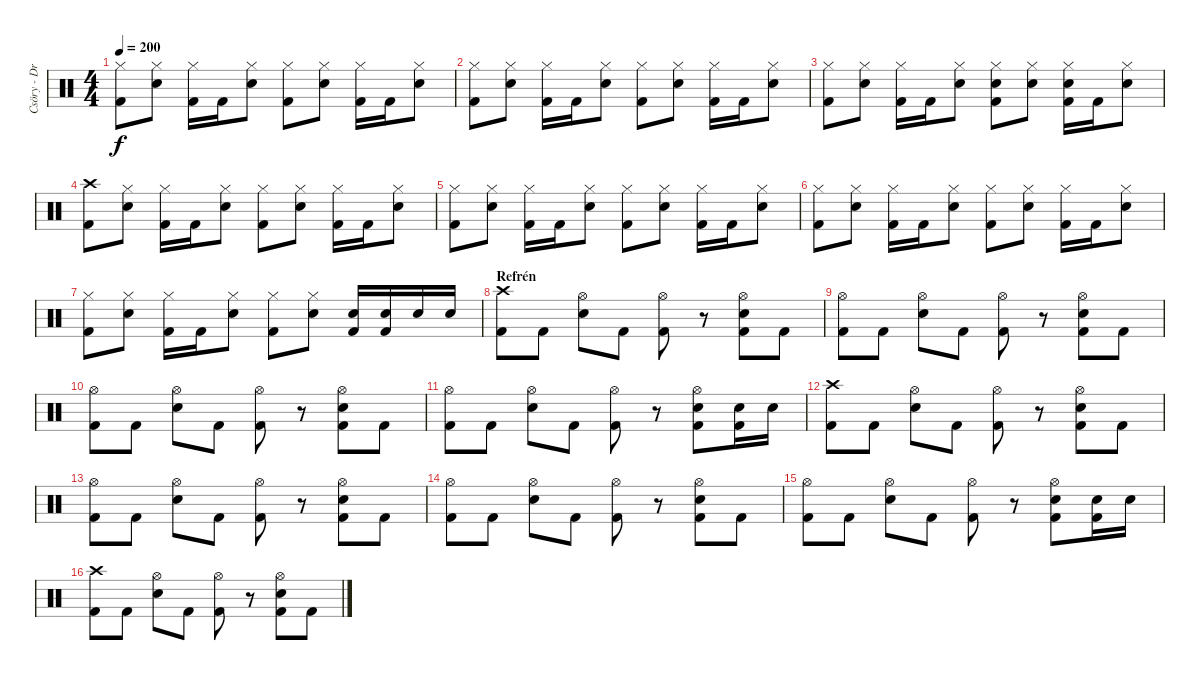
\track ("Csöry - DrumZ" "Csöry - Dr") {instrument percussion}
\staff {score}
\articulation defaults
\ts (4 4)
\tempo 200
\clef neutral
\ks c
("Hi-Hat (closed)" "Kick (hit) 2").8{dy f} ("Hi-Hat (closed)" "Snare (hit) 2").8 ("Hi-Hat (closed)" "Kick (hit) 2").16 "Kick (hit) 2".16 ("Hi-Hat (closed)" "Snare (hit) 2").8 ("Hi-Hat (closed)" "Kick (hit) 2").8 ("Hi-Hat (closed)" "Snare (hit) 2").8 ("Hi-Hat (closed)" "Kick (hit) 2").16 "Kick (hit) 2".16 ("Hi-Hat (closed)" "Snare (hit) 2").8 |
("Hi-Hat (closed)" "Kick (hit) 2").8 ("Hi-Hat (closed)" "Snare (hit) 2").8 ("Hi-Hat (closed)" "Kick (hit) 2").16 "Kick (hit) 2".16 ("Hi-Hat (closed)" "Snare (hit) 2").8 ("Hi-Hat (closed)" "Kick (hit) 2").8 ("Hi-Hat (closed)" "Snare (hit) 2").8 ("Hi-Hat (closed)" "Kick (hit) 2").16 "Kick (hit) 2".16 ("Hi-Hat (closed)" "Snare (hit) 2").8 |
("Hi-Hat (closed)" "Kick (hit) 2").8 ("Hi-Hat (closed)" "Snare (hit) 2").8 ("Hi-Hat (closed)" "Kick (hit) 2").16 "Kick (hit) 2".16 ("Hi-Hat (closed)" "Snare (hit) 2").8 ("Hi-Hat (closed)" "Snare (hit) 2" "Kick (hit) 2").8 ("Hi-Hat (closed)" "Snare (hit) 2").8 ("Hi-Hat (closed)" "Snare (hit) 2" "Kick (hit) 2").16 "Kick (hit) 2".16 ("Hi-Hat (closed)" "Snare (hit) 2").8 |
("Crash high (hit)" "Kick (hit) 2").8 ("Hi-Hat (closed)" "Snare (hit) 2").8 ("Hi-Hat (closed)" "Kick (hit) 2").16 "Kick (hit) 2".16 ("Hi-Hat (closed)" "Snare (hit) 2").8 ("Hi-Hat (closed)" "Kick (hit) 2").8 ("Hi-Hat (closed)" "Snare (hit) 2").8 ("Hi-Hat (closed)" "Kick (hit) 2").16 "Kick (hit) 2".16 ("Hi-Hat (closed)" "Snare (hit) 2").8 |
("Hi-Hat (closed)" "Kick (hit) 2").8 ("Hi-Hat (closed)" "Snare (hit) 2").8 ("Hi-Hat (closed)" "Kick (hit) 2").16 "Kick (hit) 2".16 ("Hi-Hat (closed)" "Snare (hit) 2").8 ("Hi-Hat (closed)" "Kick (hit) 2").8 ("Hi-Hat (closed)" "Snare (hit) 2").8 ("Hi-Hat (closed)" "Kick (hit) 2").16 "Kick (hit) 2".16 ("Hi-Hat (closed)" "Snare (hit) 2").8 |
("Hi-Hat (closed)" "Kick (hit) 2").8 ("Hi-Hat (closed)" "Snare (hit) 2").8 ("Hi-Hat (closed)" "Kick (hit) 2").16 "Kick (hit) 2".16 ("Hi-Hat (closed)" "Snare (hit) 2").8 ("Hi-Hat (closed)" "Kick (hit) 2").8 ("Hi-Hat (closed)" "Snare (hit) 2").8 ("Hi-Hat (closed)" "Kick (hit) 2").16 "Kick (hit) 2".16 ("Hi-Hat (closed)" "Snare (hit) 2").8 |
("Hi-Hat (closed)" "Kick (hit) 2").8 ("Hi-Hat (closed)" "Snare (hit) 2").8 ("Hi-Hat (closed)" "Kick (hit) 2").16 "Kick (hit) 2".16 ("Hi-Hat (closed)" "Snare (hit) 2").8 ("Hi-Hat (closed)" "Kick (hit) 2").8 ("Hi-Hat (closed)" "Snare (hit) 2").8 ("Snare (hit) 2" "Kick (hit) 2").16 ("Snare (hit) 2" "Kick (hit) 2").16 "Snare (hit) 2".16 "Snare (hit) 2".16 |
\section ("" "Refrén")
("Crash high (hit)" "Kick (hit) 2").8 "Kick (hit) 2".8 ("Hi-Hat (open)" "Snare (hit) 2").8 "Kick (hit) 2".8 ("Hi-Hat (open)" "Kick (hit) 2").8 r.8 ("Hi-Hat (open)" "Snare (hit) 2" "Kick (hit) 2").8 "Kick (hit) 2".8 |
("Hi-Hat (open)" "Kick (hit) 2").8 "Kick (hit) 2".8 ("Hi-Hat (open)" "Snare (hit) 2").8 "Kick (hit) 2".8 ("Hi-Hat (open)" "Kick (hit) 2").8 r.8 ("Hi-Hat (open)" "Snare (hit) 2" "Kick (hit) 2").8 "Kick (hit) 2".8 |
("Hi-Hat (open)" "Kick (hit) 2").8 "Kick (hit) 2".8 ("Hi-Hat (open)" "Snare (hit) 2").8 "Kick (hit) 2".8 ("Hi-Hat (open)" "Kick (hit) 2").8 r.8 ("Hi-Hat (open)" "Snare (hit) 2" "Kick (hit) 2").8 "Kick (hit) 2".8 |
("Hi-Hat (open)" "Kick (hit) 2").8 "Kick (hit) 2".8 ("Hi-Hat (open)" "Snare (hit) 2").8 "Kick (hit) 2".8 ("Hi-Hat (open)" "Kick (hit) 2").8 r.8 ("Hi-Hat (open)" "Snare (hit) 2" "Kick (hit) 2").8 ("Snare (hit) 2" "Kick (hit) 2").16 "Snare (hit) 2".16 |
("Crash high (hit)" "Kick (hit) 2").8 "Kick (hit) 2".8 ("Hi-Hat (open)" "Snare (hit) 2").8 "Kick (hit) 2".8 ("Hi-Hat (open)" "Kick (hit) 2").8 r.8 ("Hi-Hat (open)" "Snare (hit) 2" "Kick (hit) 2").8 "Kick (hit) 2".8 |
("Hi-Hat (open)" "Kick (hit) 2").8 "Kick (hit) 2".8 ("Hi-Hat (open)" "Snare (hit) 2").8 "Kick (hit) 2".8 ("Hi-Hat (open)" "Kick (hit) 2").8 r.8 ("Hi-Hat (open)" "Snare (hit) 2" "Kick (hit) 2").8 "Kick (hit) 2".8 |
("Hi-Hat (open)" "Kick (hit) 2").8 "Kick (hit) 2".8 ("Hi-Hat (open)" "Snare (hit) 2").8 "Kick (hit) 2".8 ("Hi-Hat (open)" "Kick (hit) 2").8 r.8 ("Hi-Hat (open)" "Snare (hit) 2" "Kick (hit) 2").8 "Kick (hit) 2".8 |
("Hi-Hat (open)" "Kick (hit) 2").8 "Kick (hit) 2".8 ("Hi-Hat (open)" "Snare (hit) 2").8 "Kick (hit) 2".8 ("Hi-Hat (open)" "Kick (hit) 2").8 r.8 ("Hi-Hat (open)" "Snare (hit) 2" "Kick (hit) 2").8 ("Snare (hit) 2" "Kick (hit) 2").16 "Snare (hit) 2".16 |
("Crash high (hit)" "Kick (hit) 2").8 "Kick (hit) 2".8 ("Hi-Hat (open)" "Snare (hit) 2").8 "Kick (hit) 2".8 ("Hi-Hat (open)" "Kick (hit) 2").8 r.8 ("Hi-Hat (open)" "Snare (hit) 2" "Kick (hit) 2").8 "Kick (hit) 2".8
